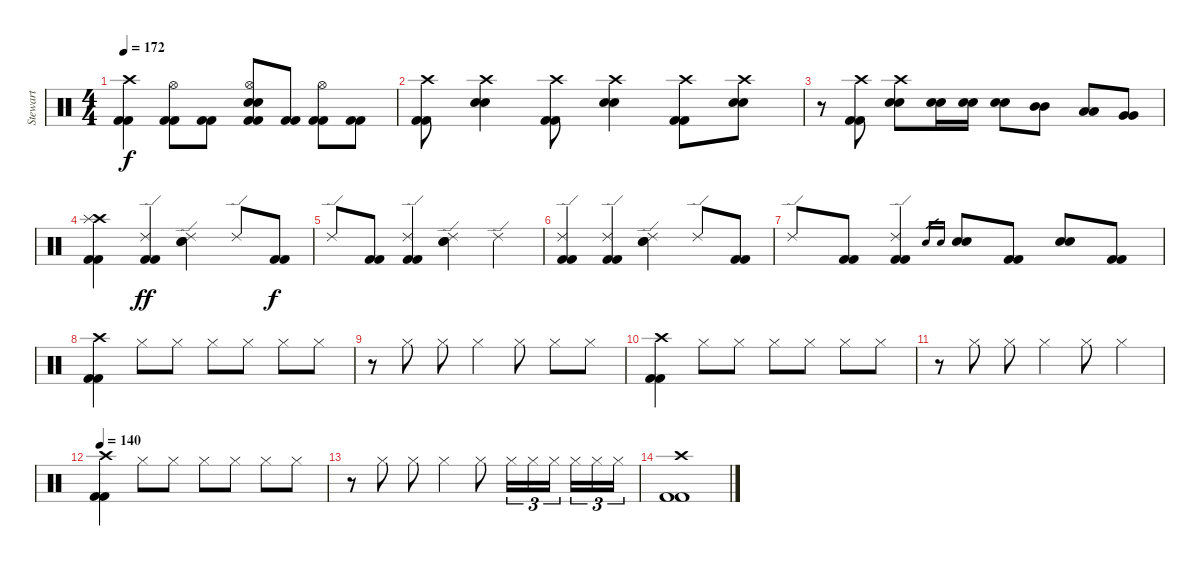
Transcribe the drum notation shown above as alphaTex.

\track ("Stewart" "Stewart") {instrument percussion}
\staff {score}
\articulation defaults
\ts (4 4)
\tempo 172
\clef neutral
\ks c
("Crash high (hit)" "Kick (hit) 2" "Kick (hit) 2").4{dy f} ("Hi-Hat (open)" "Kick (hit) 2" "Kick (hit) 2").8 ("Kick (hit) 2" "Kick (hit) 2").8 ("Hi-Hat (open)" "Electric Snare (hit)" "Electric Snare (hit)" "Kick (hit) 2" "Kick (hit) 2").8 ("Kick (hit) 2" "Kick (hit) 2").8 ("Hi-Hat (open)" "Kick (hit) 2" "Kick (hit) 2").8 ("Kick (hit) 2" "Kick (hit) 2").8 |
("Crash high (hit)" "Kick (hit) 2" "Kick (hit) 2").8 ("Crash high (hit)" "Electric Snare (hit)" "Electric Snare (hit)").4 ("Crash high (hit)" "Kick (hit) 2" "Kick (hit) 2").8 ("Crash high (hit)" "Electric Snare (hit)" "Electric Snare (hit)").4 ("Crash high (hit)" "Kick (hit) 2" "Kick (hit) 2").8 ("Crash high (hit)" "Electric Snare (hit)" "Electric Snare (hit)").8 |
r.8 ("Crash high (hit)" "Kick (hit) 2" "Kick (hit) 2").8 ("Crash high (hit)" "Electric Snare (hit)" "Electric Snare (hit)").8 ("Electric Snare (hit)" "Electric Snare (hit)").16 ("Electric Snare (hit)" "Electric Snare (hit)").16 ("Electric Snare (hit)" "Electric Snare (hit)").8 ("Mid Tom (hit)" "Mid Tom (hit)").8 ("Low Tom (hit)" "Low Tom (hit)").8 ("Very Low Tom (hit)" "Very Low Tom (hit)").8 |
("Crash high (hit)" "Splash (hit)" "Kick (hit) 2" "Kick (hit) 2").4 ("Ride (edge) 2" "Kick (hit) 2" "Kick (hit) 2").4{dy ff} ("Ride (edge) 2" "Electric Snare (hit)" "Electric Snare (hit)").4 "Ride (edge) 2".8 ("Kick (hit) 2" "Kick (hit) 2").8{dy f} |
"Ride (edge) 2".8 ("Kick (hit) 2" "Kick (hit) 2").8 ("Ride (edge) 2" "Kick (hit) 2" "Kick (hit) 2").4 ("Ride (edge) 2" "Electric Snare (hit)" "Electric Snare (hit)").4 "Ride (edge) 2".4 |
("Ride (edge) 2" "Kick (hit) 2" "Kick (hit) 2").4 ("Ride (edge) 2" "Kick (hit) 2" "Kick (hit) 2").4 ("Ride (edge) 2" "Electric Snare (hit)" "Electric Snare (hit)").4 "Ride (edge) 2".8 ("Kick (hit) 2" "Kick (hit) 2").8 |
"Ride (edge) 2".8 ("Kick (hit) 2" "Kick (hit) 2").8 ("Ride (edge) 2" "Kick (hit) 2" "Kick (hit) 2").4 "Electric Snare (hit)".16{gr} "Electric Snare (hit)".16{gr} ("Electric Snare (hit)" "Electric Snare (hit)").8 ("Kick (hit) 2" "Kick (hit) 2").8 ("Electric Snare (hit)" "Electric Snare (hit)").8 ("Kick (hit) 2" "Kick (hit) 2").8 |
("Crash high (hit)" "Kick (hit) 2" "Kick (hit) 2").4 "Hi-Hat (closed)".8 "Hi-Hat (closed)".8 "Hi-Hat (closed)".8 "Hi-Hat (closed)".8 "Hi-Hat (closed)".8 "Hi-Hat (closed)".8 |
r.8 "Hi-Hat (closed)".8 "Hi-Hat (closed)".8 "Hi-Hat (closed)".4 "Hi-Hat (closed)".8 "Hi-Hat (closed)".8 "Hi-Hat (closed)".8 |
("Crash high (hit)" "Kick (hit) 2" "Kick (hit) 2").4 "Hi-Hat (closed)".8 "Hi-Hat (closed)".8 "Hi-Hat (closed)".8 "Hi-Hat (closed)".8 "Hi-Hat (closed)".8 "Hi-Hat (closed)".8 |
r.8 "Hi-Hat (closed)".8 "Hi-Hat (closed)".8 "Hi-Hat (closed)".4 "Hi-Hat (closed)".8 "Hi-Hat (closed)".4 |
\tempo 140
("Crash high (hit)" "Kick (hit) 2" "Kick (hit) 2").4 "Hi-Hat (closed)".8 "Hi-Hat (closed)".8 "Hi-Hat (closed)".8 "Hi-Hat (closed)".8 "Hi-Hat (closed)".8 "Hi-Hat (closed)".8 |
r.8 "Hi-Hat (closed)".8 "Hi-Hat (closed)".8 "Hi-Hat (closed)".4 "Hi-Hat (closed)".8 "Hi-Hat (closed)".16{tu (3 2)} "Hi-Hat (closed)".16{tu (3 2)} "Hi-Hat (closed)".16{tu (3 2)} "Hi-Hat (closed)".16{tu (3 2)} "Hi-Hat (closed)".16{tu (3 2)} "Hi-Hat (closed)".16{tu (3 2)} |
("Crash high (hit)" "Kick (hit) 2" "Kick (hit) 2").1
